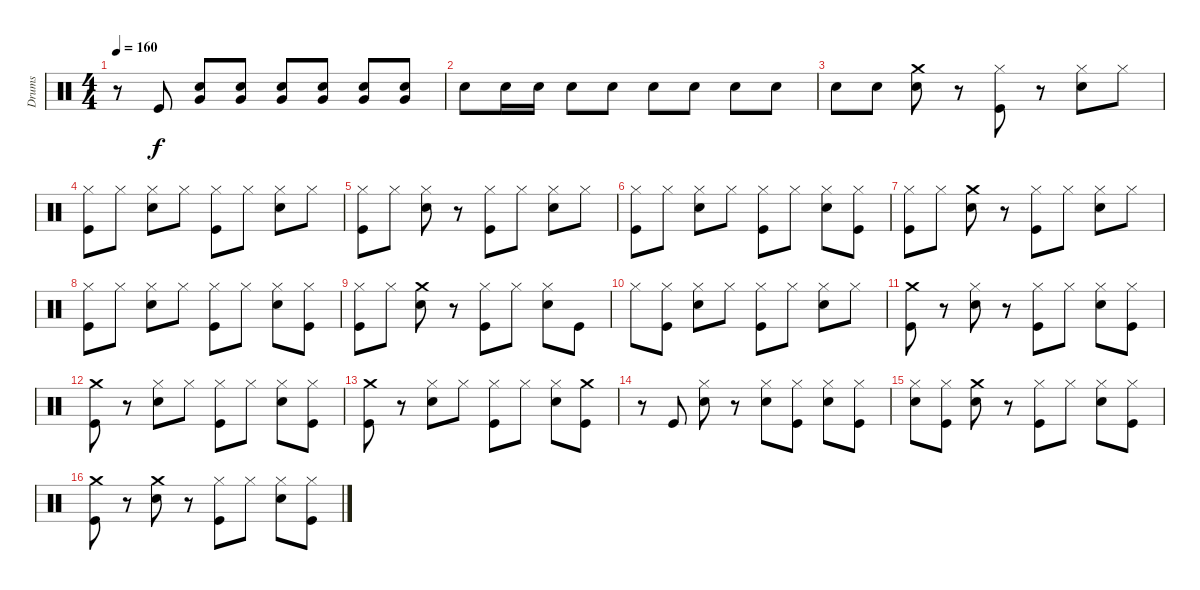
\track ("Drums" "Drums") {instrument percussion}
\staff {score}
\articulation defaults
\ts (4 4)
\tempo 160
\clef neutral
\ks c
r.8{dy f} "Kick (hit)".8 ("Very Low Tom (hit)" "Snare (hit) 2").8 ("Very Low Tom (hit)" "Snare (hit) 2").8 ("Very Low Tom (hit)" "Snare (hit) 2").8 ("Very Low Tom (hit)" "Snare (hit) 2").8 ("Very Low Tom (hit)" "Snare (hit) 2").8 ("Very Low Tom (hit)" "Snare (hit) 2").8 |
"Snare (hit) 2".8 "Snare (hit) 2".16 "Snare (hit) 2".16 "Snare (hit) 2".8 "Snare (hit) 2".8 "Snare (hit) 2".8 "Snare (hit) 2".8 "Snare (hit) 2".8 "Snare (hit) 2".8 |
"Snare (hit) 2".8 "Snare (hit) 2".8 ("Crash medium (hit)" "Snare (hit) 2").8 r.8 ("Kick (hit)" "Hi-Hat (closed)").8 r.8 ("Hi-Hat (closed)" "Snare (hit) 2").8 "Hi-Hat (closed)".8 |
("Kick (hit)" "Hi-Hat (closed)").8 "Hi-Hat (closed)".8 ("Snare (hit) 2" "Hi-Hat (closed)").8 "Hi-Hat (closed)".8 ("Kick (hit)" "Hi-Hat (closed)").8 "Hi-Hat (closed)".8 ("Snare (hit) 2" "Hi-Hat (closed)").8 "Hi-Hat (closed)".8 |
("Hi-Hat (closed)" "Kick (hit)").8 "Hi-Hat (closed)".8 ("Hi-Hat (closed)" "Snare (hit) 2").8 r.8 ("Kick (hit)" "Hi-Hat (closed)").8 "Hi-Hat (closed)".8 ("Snare (hit) 2" "Hi-Hat (closed)").8 "Hi-Hat (closed)".8 |
("Hi-Hat (closed)" "Kick (hit)").8 "Hi-Hat (closed)".8 ("Snare (hit) 2" "Hi-Hat (closed)").8 "Hi-Hat (closed)".8 ("Hi-Hat (closed)" "Kick (hit)").8 "Hi-Hat (closed)".8 ("Snare (hit) 2" "Hi-Hat (closed)").8 ("Kick (hit)" "Hi-Hat (closed)").8 |
("Hi-Hat (closed)" "Kick (hit)").8 "Hi-Hat (closed)".8 ("Crash medium (hit)" "Snare (hit) 2").8 r.8 ("Hi-Hat (closed)" "Kick (hit)").8 "Hi-Hat (closed)".8 ("Snare (hit) 2" "Hi-Hat (closed)").8 "Hi-Hat (closed)".8 |
("Hi-Hat (closed)" "Kick (hit)").8 "Hi-Hat (closed)".8 ("Snare (hit) 2" "Hi-Hat (closed)").8 "Hi-Hat (closed)".8 ("Hi-Hat (closed)" "Kick (hit)").8 "Hi-Hat (closed)".8 ("Snare (hit) 2" "Hi-Hat (closed)").8 ("Kick (hit)" "Hi-Hat (closed)").8 |
("Hi-Hat (closed)" "Kick (hit)").8 "Hi-Hat (closed)".8 ("Crash medium (hit)" "Snare (hit) 2").8 r.8 ("Hi-Hat (closed)" "Kick (hit)").8 "Hi-Hat (closed)".8 ("Snare (hit) 2" "Hi-Hat (closed)").8 "Kick (hit)".8 |
"Hi-Hat (closed)".8 ("Kick (hit)" "Hi-Hat (closed)").8 ("Hi-Hat (closed)" "Snare (hit) 2").8 "Hi-Hat (closed)".8 ("Kick (hit)" "Hi-Hat (closed)").8 "Hi-Hat (closed)".8 ("Snare (hit) 2" "Hi-Hat (closed)").8 "Hi-Hat (closed)".8 |
("Crash medium (hit)" "Kick (hit)").8 r.8 ("Hi-Hat (closed)" "Snare (hit) 2").8 r.8 ("Kick (hit)" "Hi-Hat (closed)").8 "Hi-Hat (closed)".8 ("Snare (hit) 2" "Hi-Hat (closed)").8 ("Kick (hit)" "Hi-Hat (closed)").8 |
("Crash medium (hit)" "Kick (hit)").8 r.8 ("Hi-Hat (closed)" "Snare (hit) 2").8 "Hi-Hat (closed)".8 ("Kick (hit)" "Hi-Hat (closed)").8 "Hi-Hat (closed)".8 ("Snare (hit) 2" "Hi-Hat (closed)").8 ("Kick (hit)" "Hi-Hat (closed)").8 |
("Crash medium (hit)" "Kick (hit)").8 r.8 ("Hi-Hat (closed)" "Snare (hit) 2").8 "Hi-Hat (closed)".8 ("Kick (hit)" "Hi-Hat (closed)").8 "Hi-Hat (closed)".8 ("Snare (hit) 2" "Hi-Hat (closed)").8 ("Crash medium (hit)" "Kick (hit)").8 |
r.8 "Kick (hit)".8 ("Hi-Hat (closed)" "Snare (hit) 2").8 r.8 ("Hi-Hat (closed)" "Snare (hit) 2").8 ("Kick (hit)" "Hi-Hat (closed)").8 ("Snare (hit) 2" "Hi-Hat (closed)").8 ("Kick (hit)" "Hi-Hat (closed)").8 |
("Hi-Hat (closed)" "Snare (hit) 2").8 ("Hi-Hat (closed)" "Kick (hit)").8 ("Crash medium (hit)" "Snare (hit) 2").8 r.8 ("Hi-Hat (closed)" "Kick (hit)").8 "Hi-Hat (closed)".8 ("Snare (hit) 2" "Hi-Hat (closed)").8 ("Kick (hit)" "Hi-Hat (closed)").8 |
("Crash medium (hit)" "Kick (hit)").8 r.8 ("Snare (hit) 2" "Crash medium (hit)").8 r.8 ("Hi-Hat (closed)" "Kick (hit)").8 "Hi-Hat (closed)".8 ("Snare (hit) 2" "Hi-Hat (closed)").8 ("Hi-Hat (closed)" "Kick (hit)").8
